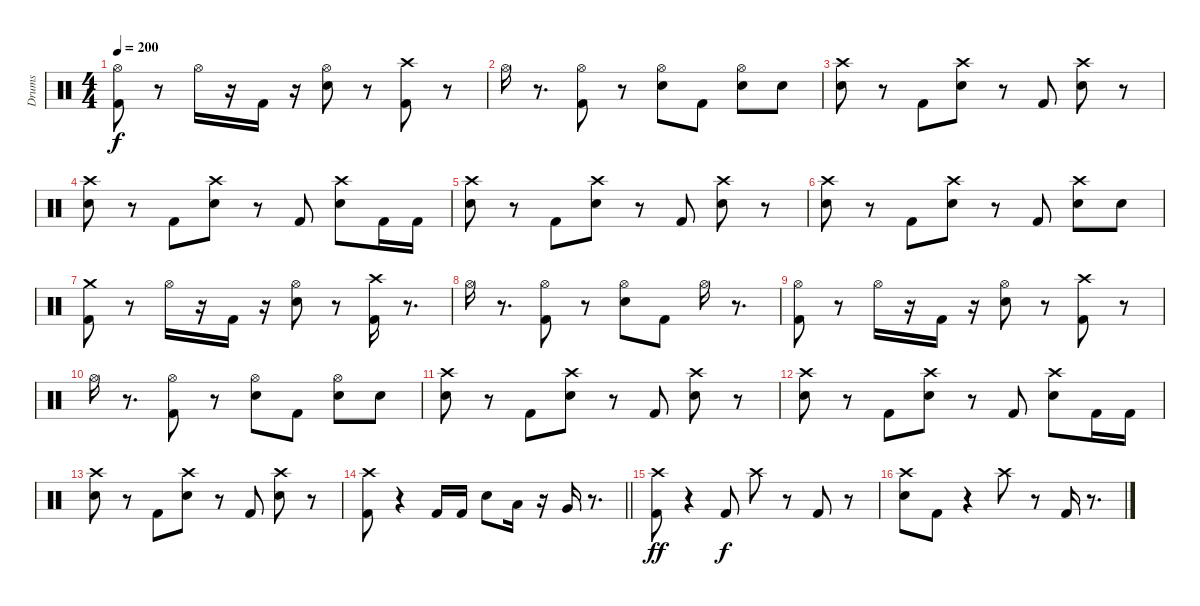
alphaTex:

\track ("Drums" "Drums") {instrument percussion}
\staff {score}
\articulation defaults
\ts (4 4)
\tempo 200
\clef neutral
\ks c
("Kick (hit) 2" "Hi-Hat (open)").8{dy f} r.8 "Hi-Hat (open)".16 r.16 "Kick (hit) 2".16 r.16 ("Snare (hit) 2" "Hi-Hat (open)").8 r.8 ("Kick (hit) 2" "Crash high (hit)").8 r.8 |
"Hi-Hat (open)".16 r.8{d} ("Kick (hit) 2" "Hi-Hat (open)").8 r.8 ("Snare (hit) 2" "Hi-Hat (open)").8 "Kick (hit) 2".8 ("Snare (hit) 2" "Hi-Hat (open)").8 "Snare (hit) 2".8 |
("Snare (hit) 2" "Crash high (hit)").8 r.8 "Kick (hit) 2".8 ("Snare (hit) 2" "Crash high (hit)").8 r.8 "Kick (hit) 2".8 ("Snare (hit) 2" "Crash high (hit)").8 r.8 |
("Snare (hit) 2" "Crash high (hit)").8 r.8 "Kick (hit) 2".8 ("Snare (hit) 2" "Crash high (hit)").8 r.8 "Kick (hit) 2".8 ("Snare (hit) 2" "Crash high (hit)").8 "Kick (hit) 2".16 "Kick (hit) 2".16 |
("Snare (hit) 2" "Crash high (hit)").8 r.8 "Kick (hit) 2".8 ("Snare (hit) 2" "Crash high (hit)").8 r.8 "Kick (hit) 2".8 ("Snare (hit) 2" "Crash high (hit)").8 r.8 |
("Snare (hit) 2" "Crash high (hit)").8 r.8 "Kick (hit) 2".8 ("Snare (hit) 2" "Crash high (hit)").8 r.8 "Kick (hit) 2".8 ("Snare (hit) 2" "Crash high (hit)").8 "Snare (hit) 2".8 |
("Kick (hit) 2" "Crash medium (hit)").8 r.8 "Hi-Hat (open)".16 r.16 "Kick (hit) 2".16 r.16 ("Snare (hit) 2" "Hi-Hat (open)").8 r.8 ("Kick (hit) 2" "Crash high (hit)").16 r.8{d} |
"Hi-Hat (open)".16 r.8{d} ("Kick (hit) 2" "Hi-Hat (open)").8 r.8 ("Snare (hit) 2" "Hi-Hat (open)").8 "Kick (hit) 2".8 "Hi-Hat (open)".16 r.8{d} |
("Kick (hit) 2" "Hi-Hat (open)").8 r.8 "Hi-Hat (open)".16 r.16 "Kick (hit) 2".16 r.16 ("Snare (hit) 2" "Hi-Hat (open)").8 r.8 ("Kick (hit) 2" "Crash high (hit)").8 r.8 |
"Hi-Hat (open)".16 r.8{d} ("Kick (hit) 2" "Hi-Hat (open)").8 r.8 ("Snare (hit) 2" "Hi-Hat (open)").8 "Kick (hit) 2".8 ("Snare (hit) 2" "Hi-Hat (open)").8 "Snare (hit) 2".8 |
("Snare (hit) 2" "Crash high (hit)").8 r.8 "Kick (hit) 2".8 ("Snare (hit) 2" "Crash high (hit)").8 r.8 "Kick (hit) 2".8 ("Snare (hit) 2" "Crash high (hit)").8 r.8 |
("Snare (hit) 2" "Crash high (hit)").8 r.8 "Kick (hit) 2".8 ("Snare (hit) 2" "Crash high (hit)").8 r.8 "Kick (hit) 2".8 ("Snare (hit) 2" "Crash high (hit)").8 "Kick (hit) 2".16 "Kick (hit) 2".16 |
("Snare (hit) 2" "Crash high (hit)").8 r.8 "Kick (hit) 2".8 ("Snare (hit) 2" "Crash high (hit)").8 r.8 "Kick (hit) 2".8 ("Snare (hit) 2" "Crash high (hit)").8 r.8 |
\barLineRight lightlight
("Kick (hit) 2" "Crash high (hit)").8 r.4 "Kick (hit) 2".16 "Kick (hit) 2".16 "Snare (hit) 2".8 "Low Tom (hit)".16 r.16 "Very Low Tom (hit)".16 r.8{d} |
\section ("" " ")
("Kick (hit) 2" "Crash high (hit)").8{dy ff} r.4 "Kick (hit) 2".8{dy f} "Crash high (hit)".8 r.8 "Kick (hit) 2".8 r.8 |
("Snare (hit) 2" "Crash high (hit)").8 "Kick (hit) 2".8 r.4 "Crash high (hit)".8 r.8 "Kick (hit) 2".16 r.8{d}
